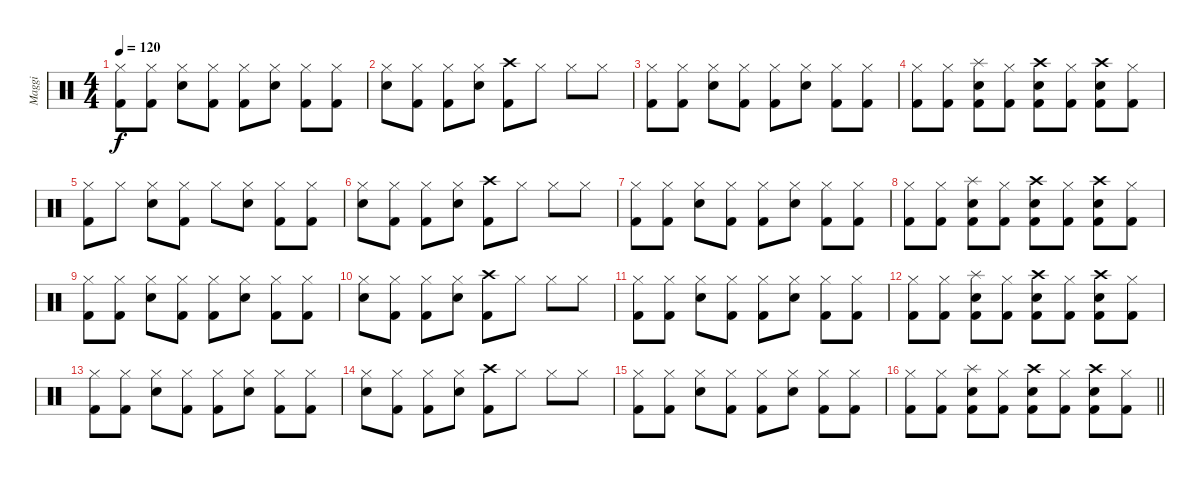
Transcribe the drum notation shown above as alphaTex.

\track ("Maggi" "Maggi") {instrument percussion}
\staff {score}
\articulation defaults
\ts (4 4)
\tempo 120
\clef neutral
\ks c
("Hi-Hat (closed)" "Kick (hit) 2").8{dy f} ("Hi-Hat (closed)" "Kick (hit) 2").8 ("Hi-Hat (closed)" "Snare (hit) 2").8 ("Hi-Hat (closed)" "Kick (hit) 2").8 ("Hi-Hat (closed)" "Kick (hit) 2").8 ("Hi-Hat (closed)" "Snare (hit) 2").8 ("Hi-Hat (closed)" "Kick (hit) 2").8 ("Hi-Hat (closed)" "Kick (hit) 2").8 |
("Hi-Hat (closed)" "Snare (hit) 2").8 ("Hi-Hat (closed)" "Kick (hit) 2").8 ("Hi-Hat (closed)" "Kick (hit) 2").8 ("Hi-Hat (closed)" "Snare (hit) 2").8 ("Crash high (hit)" "Kick (hit) 2").8 "Hi-Hat (closed)".8 "Hi-Hat (closed)".8 "Hi-Hat (closed)".8 |
("Hi-Hat (closed)" "Kick (hit) 2").8 ("Hi-Hat (closed)" "Kick (hit) 2").8 ("Hi-Hat (closed)" "Snare (hit) 2").8 ("Hi-Hat (closed)" "Kick (hit) 2").8 ("Hi-Hat (closed)" "Kick (hit) 2").8 ("Hi-Hat (closed)" "Snare (hit) 2").8 ("Hi-Hat (closed)" "Kick (hit) 2").8 ("Hi-Hat (closed)" "Kick (hit) 2").8 |
("Hi-Hat (closed)" "Kick (hit) 2").8 ("Hi-Hat (closed)" "Kick (hit) 2").8 ("Splash (hit)" "Snare (hit) 2" "Kick (hit) 2").8 ("Hi-Hat (closed)" "Kick (hit) 2").8 ("Crash high (hit)" "Snare (hit) 2" "Kick (hit) 2").8 ("Hi-Hat (closed)" "Kick (hit) 2").8 ("Crash high (hit)" "Snare (hit) 2" "Kick (hit) 2").8 ("Hi-Hat (closed)" "Kick (hit) 2").8 |
("Hi-Hat (closed)" "Kick (hit) 2").8 "Hi-Hat (closed)".8 ("Hi-Hat (closed)" "Snare (hit) 2").8 ("Hi-Hat (closed)" "Kick (hit) 2").8 "Hi-Hat (closed)".8 ("Hi-Hat (closed)" "Snare (hit) 2").8 ("Hi-Hat (closed)" "Kick (hit) 2").8 ("Hi-Hat (closed)" "Kick (hit) 2").8 |
("Hi-Hat (closed)" "Snare (hit) 2").8 ("Hi-Hat (closed)" "Kick (hit) 2").8 ("Hi-Hat (closed)" "Kick (hit) 2").8 ("Hi-Hat (closed)" "Snare (hit) 2").8 ("Crash high (hit)" "Kick (hit) 2").8 "Hi-Hat (closed)".8 "Hi-Hat (closed)".8 "Hi-Hat (closed)".8 |
("Hi-Hat (closed)" "Kick (hit) 2").8 ("Hi-Hat (closed)" "Kick (hit) 2").8 ("Hi-Hat (closed)" "Snare (hit) 2").8 ("Hi-Hat (closed)" "Kick (hit) 2").8 ("Hi-Hat (closed)" "Kick (hit) 2").8 ("Hi-Hat (closed)" "Snare (hit) 2").8 ("Hi-Hat (closed)" "Kick (hit) 2").8 ("Hi-Hat (closed)" "Kick (hit) 2").8 |
("Hi-Hat (closed)" "Kick (hit) 2").8 ("Hi-Hat (closed)" "Kick (hit) 2").8 ("Splash (hit)" "Snare (hit) 2" "Kick (hit) 2").8 ("Hi-Hat (closed)" "Kick (hit) 2").8 ("Crash high (hit)" "Snare (hit) 2" "Kick (hit) 2").8 ("Hi-Hat (closed)" "Kick (hit) 2").8 ("Crash high (hit)" "Snare (hit) 2" "Kick (hit) 2").8 ("Hi-Hat (closed)" "Kick (hit) 2").8 |
("Hi-Hat (closed)" "Kick (hit) 2").8 ("Hi-Hat (closed)" "Kick (hit) 2").8 ("Hi-Hat (closed)" "Snare (hit) 2").8 ("Hi-Hat (closed)" "Kick (hit) 2").8 ("Hi-Hat (closed)" "Kick (hit) 2").8 ("Hi-Hat (closed)" "Snare (hit) 2").8 ("Hi-Hat (closed)" "Kick (hit) 2").8 ("Hi-Hat (closed)" "Kick (hit) 2").8 |
("Hi-Hat (closed)" "Snare (hit) 2").8 ("Hi-Hat (closed)" "Kick (hit) 2").8 ("Hi-Hat (closed)" "Kick (hit) 2").8 ("Hi-Hat (closed)" "Snare (hit) 2").8 ("Crash high (hit)" "Kick (hit) 2").8 "Hi-Hat (closed)".8 "Hi-Hat (closed)".8 "Hi-Hat (closed)".8 |
("Hi-Hat (closed)" "Kick (hit) 2").8 ("Hi-Hat (closed)" "Kick (hit) 2").8 ("Hi-Hat (closed)" "Snare (hit) 2").8 ("Hi-Hat (closed)" "Kick (hit) 2").8 ("Hi-Hat (closed)" "Kick (hit) 2").8 ("Hi-Hat (closed)" "Snare (hit) 2").8 ("Hi-Hat (closed)" "Kick (hit) 2").8 ("Hi-Hat (closed)" "Kick (hit) 2").8 |
("Hi-Hat (closed)" "Kick (hit) 2").8 ("Hi-Hat (closed)" "Kick (hit) 2").8 ("Splash (hit)" "Snare (hit) 2" "Kick (hit) 2").8 ("Hi-Hat (closed)" "Kick (hit) 2").8 ("Crash high (hit)" "Snare (hit) 2" "Kick (hit) 2").8 ("Hi-Hat (closed)" "Kick (hit) 2").8 ("Crash high (hit)" "Snare (hit) 2" "Kick (hit) 2").8 ("Hi-Hat (closed)" "Kick (hit) 2").8 |
("Hi-Hat (closed)" "Kick (hit) 2").8 ("Hi-Hat (closed)" "Kick (hit) 2").8 ("Hi-Hat (closed)" "Snare (hit) 2").8 ("Hi-Hat (closed)" "Kick (hit) 2").8 ("Hi-Hat (closed)" "Kick (hit) 2").8 ("Hi-Hat (closed)" "Snare (hit) 2").8 ("Hi-Hat (closed)" "Kick (hit) 2").8 ("Hi-Hat (closed)" "Kick (hit) 2").8 |
("Hi-Hat (closed)" "Snare (hit) 2").8 ("Hi-Hat (closed)" "Kick (hit) 2").8 ("Hi-Hat (closed)" "Kick (hit) 2").8 ("Hi-Hat (closed)" "Snare (hit) 2").8 ("Crash high (hit)" "Kick (hit) 2").8 "Hi-Hat (closed)".8 "Hi-Hat (closed)".8 "Hi-Hat (closed)".8 |
("Hi-Hat (closed)" "Kick (hit) 2").8 ("Hi-Hat (closed)" "Kick (hit) 2").8 ("Hi-Hat (closed)" "Snare (hit) 2").8 ("Hi-Hat (closed)" "Kick (hit) 2").8 ("Hi-Hat (closed)" "Kick (hit) 2").8 ("Hi-Hat (closed)" "Snare (hit) 2").8 ("Hi-Hat (closed)" "Kick (hit) 2").8 ("Hi-Hat (closed)" "Kick (hit) 2").8 |
\barLineRight lightlight
("Hi-Hat (closed)" "Kick (hit) 2").8 ("Hi-Hat (closed)" "Kick (hit) 2").8 ("Splash (hit)" "Snare (hit) 2" "Kick (hit) 2").8 ("Hi-Hat (closed)" "Kick (hit) 2").8 ("Crash high (hit)" "Snare (hit) 2" "Kick (hit) 2").8 ("Hi-Hat (closed)" "Kick (hit) 2").8 ("Crash high (hit)" "Snare (hit) 2" "Kick (hit) 2").8 ("Hi-Hat (closed)" "Kick (hit) 2").8
